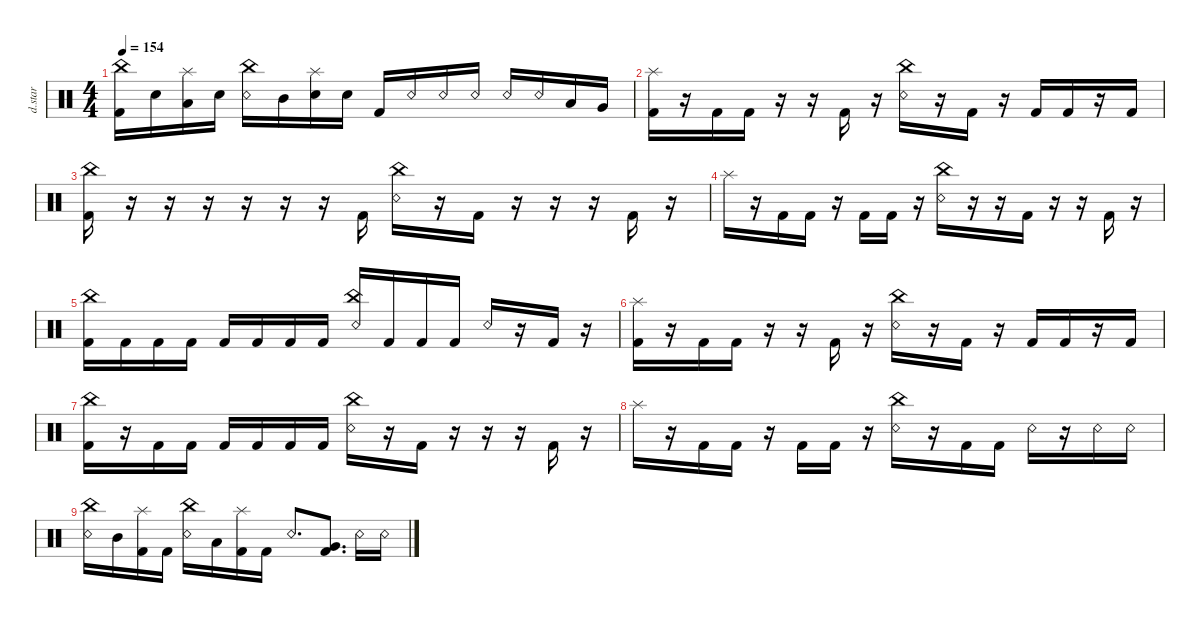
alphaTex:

\defaultSystemsLayout 4
\hideDynamics
\bracketExtendMode nobrackets
\otherSystemsTrackNameOrientation horizontal
\track ("Drumkit Star" "d.star") {instrument percussion}
\staff {score}
\articulation defaults
\ts (4 4)
\tempo 154
\clef neutral
\ks c
("Kick (hit) 2" "China (hit)").16{dy ff beam Down} "Snare (hit) 2".16{dy mp beam Down} ("Low Tom (hit)" "Splash (hit)").16{dy ff beam Down} "Snare (hit) 2".16{dy mp beam Down} ("Snare (rim shot)" "China (hit)").16{dy ff beam Down} "Mid Tom (hit)".16{beam Down} ("Snare (hit) 2" "Splash (hit)").16{dy mp beam Down} "Snare (hit) 2".16{beam Down} "Kick (hit) 2".16{dy ff beam Up} "Snare (rim shot)".16{beam Up} "Snare (rim shot)".16{beam Up} "Snare (rim shot)".16{beam Up} "Snare (rim shot)".16{beam Up} "Snare (rim shot)".16{beam Up} "Low Tom (hit)".16{beam Up} "Very Low Tom (hit)".16{beam Up} |
("Kick (hit) 2" "Splash (hit)").16{beam Down} r.16{beam Down} "Kick (hit) 2".16{beam Down} "Kick (hit) 2".16{beam Down} r.16{beam Down} r.16{beam Down} "Kick (hit) 2".16{beam Up} r.16{beam Up} ("Snare (rim shot)" "China (hit)").16{beam Down} r.16{beam Down} "Kick (hit) 2".16{beam Down} r.16{beam Down} "Kick (hit) 2".16{beam Up} "Kick (hit) 2".16{beam Up} r.16{beam Up} "Kick (hit) 2".16{beam Up} |
("Kick (hit) 2" "China (hit)").16{beam Down} r.16{beam Down} r.16{beam Down} r.16{beam Down} r.16{beam Down} r.16{beam Down} r.16{beam Down} "Kick (hit) 2".16{beam Up} ("Snare (rim shot)" "China (hit)").16{beam Down} r.16{beam Down} "Kick (hit) 2".16{beam Down} r.16{beam Down} r.16{beam Down} r.16{beam Down} "Kick (hit) 2".16{beam Up} r.16{beam Up} |
"Splash (hit)".16{beam Down} r.16{beam Down} "Kick (hit) 2".16{beam Down} "Kick (hit) 2".16{beam Down} r.16{beam Down} "Kick (hit) 2".16{beam Up} "Kick (hit) 2".16{beam Up} r.16{beam Up} ("Snare (rim shot)" "China (hit)").16{beam Down} r.16{beam Down} r.16{beam Down} "Kick (hit) 2".16{beam Down} r.16{beam Down} r.16{beam Down} "Kick (hit) 2".16{beam Up} r.16{beam Up} |
("Kick (hit) 2" "China (hit)").16{beam Down} "Kick (hit) 2".16{beam Down} "Kick (hit) 2".16{beam Down} "Kick (hit) 2".16{beam Down} "Kick (hit) 2".16{beam Up} "Kick (hit) 2".16{beam Up} "Kick (hit) 2".16{beam Up} "Kick (hit) 2".16{beam Up} ("Snare (rim shot)" "China (hit)").16{beam Up} "Kick (hit) 2".16{beam Up} "Kick (hit) 2".16{beam Up} "Kick (hit) 2".16{beam Up} "Snare (rim shot)".16{beam Up} r.16{beam Up} "Kick (hit) 2".16{beam Up} r.16{beam Up} |
("Kick (hit) 2" "Splash (hit)").16{beam Down} r.16{beam Down} "Kick (hit) 2".16{beam Down} "Kick (hit) 2".16{beam Down} r.16{beam Down} r.16{beam Down} "Kick (hit) 2".16{beam Up} r.16{beam Up} ("Snare (rim shot)" "China (hit)").16{beam Down} r.16{beam Down} "Kick (hit) 2".16{beam Down} r.16{beam Down} "Kick (hit) 2".16{beam Up} "Kick (hit) 2".16{beam Up} r.16{beam Up} "Kick (hit) 2".16{beam Up} |
("China (hit)" "Kick (hit) 2").16{beam Down} r.16{beam Down} "Kick (hit) 2".16{beam Down} "Kick (hit) 2".16{beam Down} "Kick (hit) 2".16{beam Up} "Kick (hit) 2".16{beam Up} "Kick (hit) 2".16{beam Up} "Kick (hit) 2".16{beam Up} ("Snare (rim shot)" "China (hit)").16{beam Down} r.16{beam Down} "Kick (hit) 2".16{beam Down} r.16{beam Down} r.16{beam Down} r.16{beam Down} "Kick (hit) 2".16{beam Up} r.16{beam Up} |
"Splash (hit)".16{beam Down} r.16{beam Down} "Kick (hit) 2".16{beam Down} "Kick (hit) 2".16{beam Down} r.16{beam Down} "Kick (hit) 2".16{beam Up} "Kick (hit) 2".16{beam Up} r.16{beam Up} ("Snare (rim shot)" "China (hit)").16{beam Down} r.16{beam Down} "Kick (hit) 2".16{beam Down} "Kick (hit) 2".16{beam Down} "Snare (rim shot)".16{beam Down} r.16{beam Down} "Snare (rim shot)".16{beam Down} "Snare (rim shot)".16{beam Down} |
("China (hit)" "Snare (rim shot)").16{beam Down} "Mid Tom (hit)".16{beam Down} ("Splash (hit)" "Kick (hit) 2").16{beam Down} "Kick (hit) 2".16{beam Down} ("Snare (rim shot)" "China (hit)").16{beam Down} "Low Tom (hit)".16{beam Down} ("Splash (hit)" "Kick (hit) 2").16{beam Down} "Kick (hit) 2".16{beam Down} "Snare (rim shot)".8{d beam Up} ("Very Low Tom (hit)" "Kick (hit) 2").8{d beam Up} "Snare (rim shot)".16{beam Down} "Snare (rim shot)".16{beam Down}
